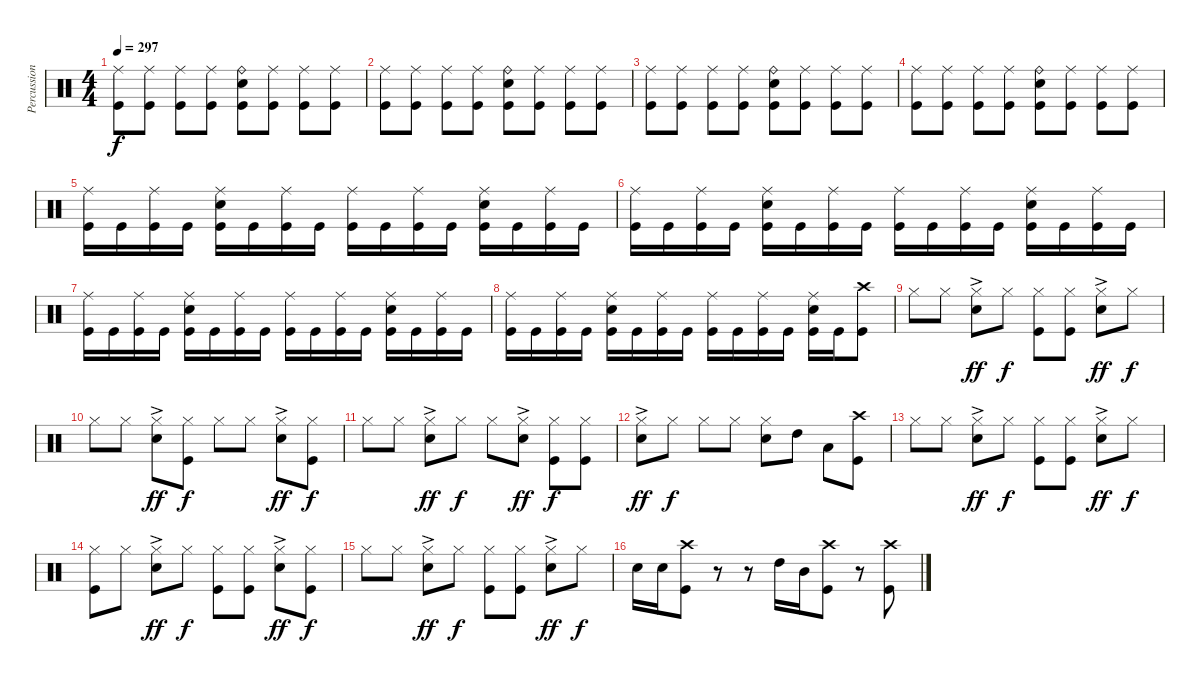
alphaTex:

\track ("Percussioni" "Percussion") {instrument percussion}
\staff {score}
\articulation defaults
\ts (4 4)
\tempo 297
\clef neutral
\ks c
("Ride (middle)" "Kick (hit)").8{dy f} ("Ride (middle)" "Kick (hit)").8 ("Ride (middle)" "Kick (hit)").8 ("Ride (middle)" "Kick (hit)").8 ("Ride (bell)" "Kick (hit)" "Snare (hit) 2").8 ("Ride (middle)" "Kick (hit)").8 ("Ride (middle)" "Kick (hit)").8 ("Ride (middle)" "Kick (hit)").8 |
("Ride (middle)" "Kick (hit)").8 ("Ride (middle)" "Kick (hit)").8 ("Ride (middle)" "Kick (hit)").8 ("Ride (middle)" "Kick (hit)").8 ("Ride (bell)" "Snare (hit) 2" "Kick (hit)").8 ("Ride (middle)" "Kick (hit)").8 ("Ride (middle)" "Kick (hit)").8 ("Ride (middle)" "Kick (hit)").8 |
("Ride (middle)" "Kick (hit)").8 ("Ride (middle)" "Kick (hit)").8 ("Ride (middle)" "Kick (hit)").8 ("Ride (middle)" "Kick (hit)").8 ("Ride (bell)" "Kick (hit)" "Snare (hit) 2").8 ("Ride (middle)" "Kick (hit)").8 ("Ride (middle)" "Kick (hit)").8 ("Ride (middle)" "Kick (hit)").8 |
("Ride (middle)" "Kick (hit)").8 ("Ride (middle)" "Kick (hit)").8 ("Ride (middle)" "Kick (hit)").8 ("Ride (middle)" "Kick (hit)").8 ("Ride (bell)" "Kick (hit)" "Snare (hit) 2").8 ("Ride (middle)" "Kick (hit)").8 ("Ride (middle)" "Kick (hit)").8 ("Ride (middle)" "Kick (hit)").8 |
("Ride (middle)" "Kick (hit)").16 "Kick (hit)".16 ("Kick (hit)" "Ride (middle)").16 "Kick (hit)".16 ("Kick (hit)" "Ride (middle)" "Snare (hit) 2").16 "Kick (hit)".16 ("Kick (hit)" "Ride (middle)").16 "Kick (hit)".16 ("Kick (hit)" "Ride (middle)").16 "Kick (hit)".16 ("Kick (hit)" "Ride (middle)").16 "Kick (hit)".16 ("Kick (hit)" "Ride (middle)" "Snare (hit) 2").16 "Kick (hit)".16 ("Kick (hit)" "Ride (middle)").16 "Kick (hit)".16 |
("Ride (middle)" "Kick (hit)").16 "Kick (hit)".16 ("Kick (hit)" "Ride (middle)").16 "Kick (hit)".16 ("Kick (hit)" "Ride (middle)" "Snare (hit) 2").16 "Kick (hit)".16 ("Kick (hit)" "Ride (middle)").16 "Kick (hit)".16 ("Kick (hit)" "Ride (middle)").16 "Kick (hit)".16 ("Kick (hit)" "Ride (middle)").16 "Kick (hit)".16 ("Kick (hit)" "Ride (middle)" "Snare (hit) 2").16 "Kick (hit)".16 ("Kick (hit)" "Ride (middle)").16 "Kick (hit)".16 |
("Ride (middle)" "Kick (hit)").16 "Kick (hit)".16 ("Kick (hit)" "Ride (middle)").16 "Kick (hit)".16 ("Kick (hit)" "Ride (middle)" "Snare (hit) 2").16 "Kick (hit)".16 ("Kick (hit)" "Ride (middle)").16 "Kick (hit)".16 ("Kick (hit)" "Ride (middle)").16 "Kick (hit)".16 ("Kick (hit)" "Ride (middle)").16 "Kick (hit)".16 ("Kick (hit)" "Ride (middle)" "Snare (hit) 2").16 "Kick (hit)".16 ("Kick (hit)" "Ride (middle)").16 "Kick (hit)".16 |
("Ride (middle)" "Kick (hit)").16 "Kick (hit)".16 ("Kick (hit)" "Ride (middle)").16 "Kick (hit)".16 ("Kick (hit)" "Ride (middle)" "Snare (hit) 2").16 "Kick (hit)".16 ("Kick (hit)" "Ride (middle)").16 "Kick (hit)".16 ("Kick (hit)" "Ride (middle)").16 "Kick (hit)".16 ("Kick (hit)" "Ride (middle)").16 "Kick (hit)".16 ("Kick (hit)" "Ride (middle)" "Snare (hit) 2").16 "Kick (hit)".16 ("Kick (hit)" "Crash high (hit)").8 |
"Hi-Hat (closed)".8 "Hi-Hat (closed)".8 ("Hi-Hat (closed)"{ac} "Snare (hit) 2").8{dy ff} "Hi-Hat (closed)".8{dy f} ("Hi-Hat (closed)" "Kick (hit)").8 ("Hi-Hat (closed)" "Kick (hit)").8 ("Hi-Hat (closed)"{ac} "Snare (hit) 2").8{dy ff} "Hi-Hat (closed)".8{dy f} |
"Hi-Hat (closed)".8 "Hi-Hat (closed)".8 ("Hi-Hat (closed)"{ac} "Snare (hit) 2").8{dy ff} ("Hi-Hat (closed)" "Kick (hit)").8{dy f} "Hi-Hat (closed)".8 "Hi-Hat (closed)".8 ("Hi-Hat (closed)"{ac} "Snare (hit) 2").8{dy ff} ("Hi-Hat (closed)" "Kick (hit)").8{dy f} |
"Hi-Hat (closed)".8 "Hi-Hat (closed)".8 ("Hi-Hat (closed)"{ac} "Snare (hit) 2").8{dy ff} "Hi-Hat (closed)".8{dy f} "Hi-Hat (closed)".8 ("Hi-Hat (closed)"{ac} "Snare (hit) 2").8{dy ff} ("Hi-Hat (closed)" "Kick (hit)").8{dy f} ("Hi-Hat (closed)" "Kick (hit)").8 |
("Hi-Hat (closed)"{ac} "Snare (hit) 2").8{dy ff} "Hi-Hat (closed)".8{dy f} "Hi-Hat (closed)".8 "Hi-Hat (closed)".8 ("Hi-Hat (closed)" "Snare (hit) 2").8 "High Tom (hit)".8 "Low Tom (hit)".8 ("Kick (hit)" "Crash high (hit)").8 |
"Hi-Hat (closed)".8 "Hi-Hat (closed)".8 ("Hi-Hat (closed)"{ac} "Snare (hit) 2").8{dy ff} "Hi-Hat (closed)".8{dy f} ("Hi-Hat (closed)" "Kick (hit)").8 ("Hi-Hat (closed)" "Kick (hit)").8 ("Hi-Hat (closed)"{ac} "Snare (hit) 2").8{dy ff} "Hi-Hat (closed)".8{dy f} |
("Hi-Hat (closed)" "Kick (hit)").8 "Hi-Hat (closed)".8 ("Hi-Hat (closed)"{ac} "Snare (hit) 2").8{dy ff} "Hi-Hat (closed)".8{dy f} ("Hi-Hat (closed)" "Kick (hit)").8 ("Hi-Hat (closed)" "Kick (hit)").8 ("Hi-Hat (closed)"{ac} "Snare (hit) 2").8{dy ff} ("Hi-Hat (closed)" "Kick (hit)").8{dy f} |
"Hi-Hat (closed)".8 "Hi-Hat (closed)".8 ("Hi-Hat (closed)"{ac} "Snare (hit) 2").8{dy ff} "Hi-Hat (closed)".8{dy f} ("Hi-Hat (closed)" "Kick (hit)").8 ("Hi-Hat (closed)" "Kick (hit)").8 ("Hi-Hat (closed)"{ac} "Snare (hit) 2").8{dy ff} "Hi-Hat (closed)".8{dy f} |
"Snare (hit) 2".16 "Snare (hit) 2".16 ("Kick (hit)" "Crash high (hit)").8 r.8 r.8 "High Tom (hit)".16 "Mid Tom (hit)".16 ("Crash high (hit)" "Kick (hit)").8 r.8 ("Crash high (hit)" "Kick (hit)").8
